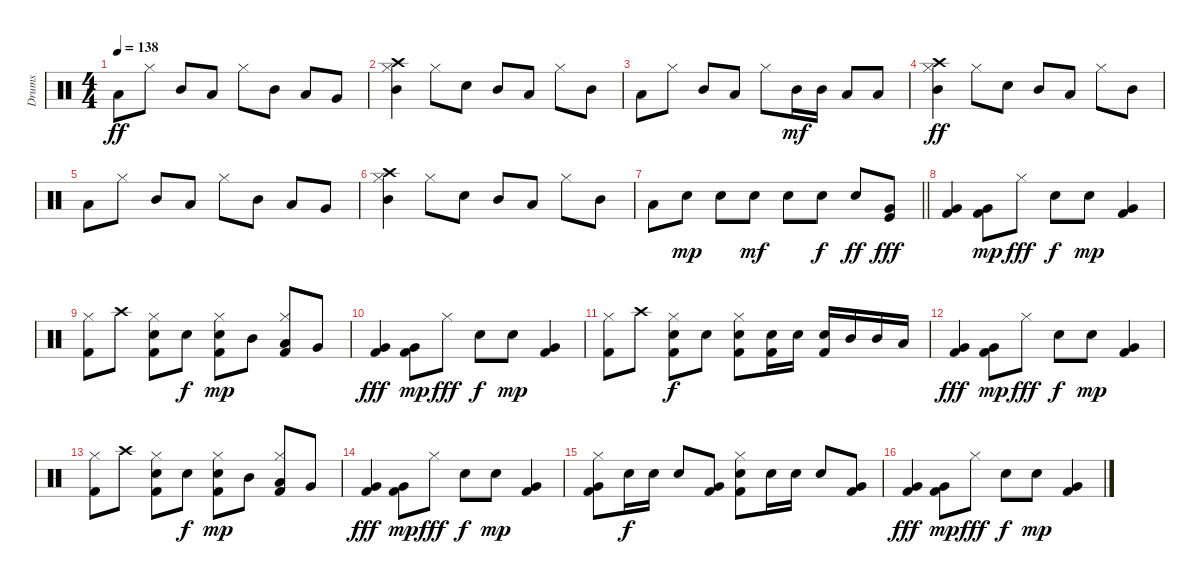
\track ("Drums" "Drums") {instrument percussion}
\staff {score}
\articulation defaults
\ts (4 4)
\tempo 138
\clef neutral
\ks c "Low Tom (hit)".8{dy ff} "Hi-Hat (closed)".8 "Mid Tom (hit)".8 "Low Tom (hit)".8 "Hi-Hat (closed)".8 "Mid Tom (hit)".8 "Low Tom (hit)".8 "Very Low Tom (hit)".8
|
("Crash high (hit)" "Hi-Hat (closed)" "Mid Tom (hit)").4 "Hi-Hat (closed)".8 "Electric Snare (hit)".8 "Mid Tom (hit)".8 "Low Tom (hit)".8 "Hi-Hat (closed)".8 "Mid Tom (hit)".8 |
"Low Tom (hit)".8 "Hi-Hat (closed)".8 "Mid Tom (hit)".8 "Low Tom (hit)".8 "Hi-Hat (closed)".8 "Mid Tom (hit)".16{dy mf} "Mid Tom (hit)".16 "Low Tom (hit)".8 "Low Tom (hit)".8 |
("Crash high (hit)" "Hi-Hat (closed)" "Mid Tom (hit)").4{dy ff} "Hi-Hat (closed)".8 "Electric Snare (hit)".8 "Mid Tom (hit)".8 "Low Tom (hit)".8 "Hi-Hat (closed)".8 "Mid Tom (hit)".8 |
"Low Tom (hit)".8 "Hi-Hat (closed)".8 "Mid Tom (hit)".8 "Low Tom (hit)".8 "Hi-Hat (closed)".8 "Mid Tom (hit)".8 "Low Tom (hit)".8 "Very Low Tom (hit)".8 |
("Crash high (hit)" "Hi-Hat (closed)" "Mid Tom (hit)").4 "Hi-Hat (closed)".8 "Electric Snare (hit)".8 "Mid Tom (hit)".8 "Low Tom (hit)".8 "Hi-Hat (closed)".8 "Mid Tom (hit)".8 |
\barLineRight lightlight "Low Tom (hit)".8 "Electric Snare (hit)".8{dy mp} "Electric Snare (hit)".8 "Electric Snare (hit)".8{dy mf} "Electric Snare (hit)".8 "Electric Snare (hit)".8{dy f} "Electric Snare (hit)".8{dy ff}
("Very Low Tom (hit)" "Kick (hit)").8{dy fff} |
("Very Low Tom (hit)" "Kick (hit) 2").4 ("Very Low Tom (hit)" "Kick (hit) 2").8{dy mp} "Hi-Hat (closed)".8{dy fff} "Electric Snare (hit)".8{dy f} "Electric Snare (hit)".8{dy mp} ("Very Low Tom (hit)" "Kick (hit) 2").4 |
("Hi-Hat (closed)" "Kick (hit) 2").8 "Crash high (hit)".8 ("Hi-Hat (closed)" "Electric Snare (hit)" "Kick (hit) 2").8 "Electric Snare (hit)".8{dy f} ("Hi-Hat (closed)" "Electric Snare (hit)" "Kick (hit) 2").8{dy mp} "Mid Tom (hit)".8 ("Hi-Hat (closed)" "Low Tom (hit)" "Kick (hit) 2").8 "Very Low Tom (hit)".8 |
("Very Low Tom (hit)" "Kick (hit) 2").4{dy fff} ("Very Low Tom (hit)" "Kick (hit) 2").8{dy mp} "Hi-Hat (closed)".8{dy fff} "Electric Snare (hit)".8{dy f} "Electric Snare (hit)".8{dy mp} ("Very Low Tom (hit)" "Kick (hit) 2").4 |
("Hi-Hat (closed)" "Kick (hit) 2").8 "Crash high (hit)".8 ("Hi-Hat (closed)" "Electric Snare (hit)" "Kick (hit) 2").8{dy f} "Electric Snare (hit)".8 ("Hi-Hat (closed)" "Electric Snare (hit)" "Kick (hit) 2").8 ("Electric Snare (hit)" "Kick (hit) 2").16 "Electric Snare (hit)".16 ("Electric Snare (hit)" "Kick (hit) 2").16 "Mid Tom (hit)".16 "Mid Tom (hit)".16 "Low Tom (hit)".16 |
("Very Low Tom (hit)" "Kick (hit) 2").4{dy fff} ("Very Low Tom (hit)" "Kick (hit) 2").8{dy mp} "Hi-Hat (closed)".8{dy fff} "Electric Snare (hit)".8{dy f} "Electric Snare (hit)".8{dy mp} ("Very Low Tom (hit)" "Kick (hit) 2").4 |
("Hi-Hat (closed)" "Kick (hit) 2").8 "Crash high (hit)".8 ("Hi-Hat (closed)" "Electric Snare (hit)" "Kick (hit) 2").8 "Electric Snare (hit)".8{dy f} ("Hi-Hat (closed)" "Electric Snare (hit)" "Kick (hit) 2").8{dy mp} "Mid Tom (hit)".8 ("Hi-Hat (closed)" "Low Tom (hit)" "Kick (hit) 2").8 "Very Low Tom (hit)".8 |
("Very Low Tom (hit)" "Kick (hit) 2").4{dy fff} ("Very Low Tom (hit)" "Kick (hit) 2").8{dy mp} "Hi-Hat (closed)".8{dy fff} "Electric Snare (hit)".8{dy f} "Electric Snare (hit)".8{dy mp} ("Very Low Tom (hit)" "Kick (hit) 2").4 |
("Hi-Hat (closed)" "Very Low Tom (hit)" "Kick (hit) 2").8 "Electric Snare (hit)".16{dy f} "Electric Snare (hit)".16 "Electric Snare (hit)".8 ("Very Low Tom (hit)" "Kick (hit) 2").8 ("Hi-Hat (closed)" "Electric Snare (hit)" "Kick (hit) 2").8 "Electric Snare (hit)".16 "Electric Snare (hit)".16 "Electric Snare (hit)".8 ("Very Low Tom (hit)" "Kick (hit) 2").8 |
("Very Low Tom (hit)" "Kick (hit) 2").4{dy fff} ("Very Low Tom (hit)" "Kick (hit) 2").8{dy mp} "Hi-Hat (closed)".8{dy fff} "Electric Snare (hit)".8{dy f} "Electric Snare (hit)".8{dy mp} ("Very Low Tom (hit)" "Kick (hit) 2").4
